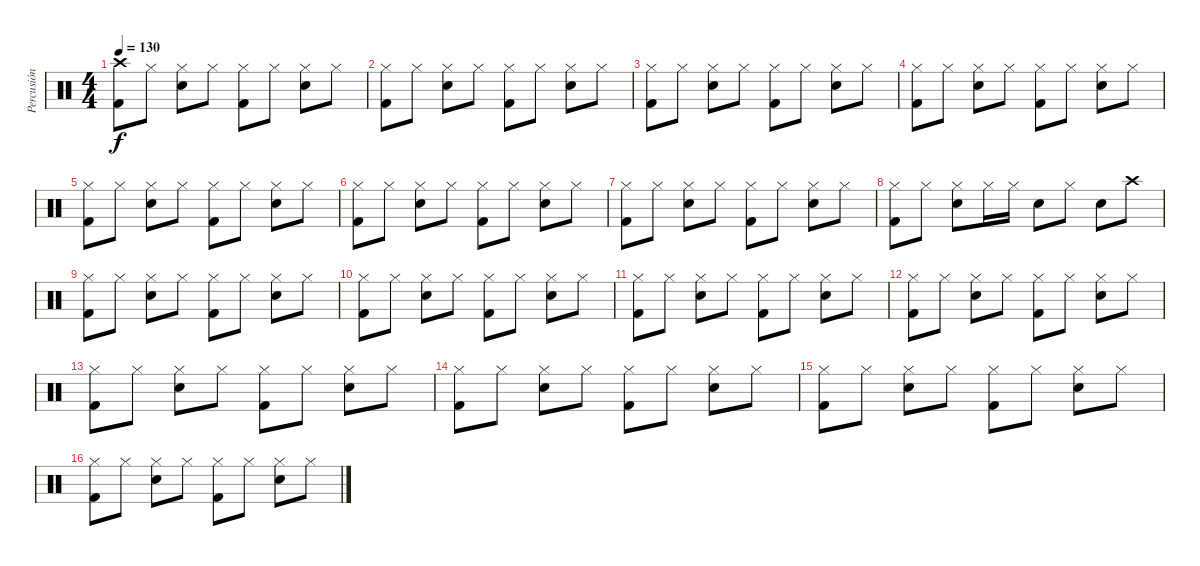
\track ("Percusión" "Percusión") {instrument percussion}
\staff {score}
\articulation defaults
\ts (4 4)
\tempo 130
\clef neutral
\ks c
("Crash high (hit)" "Kick (hit) 2").8{dy f} "Hi-Hat (closed)".8 ("Hi-Hat (closed)" "Snare (hit) 2").8 "Hi-Hat (closed)".8 ("Hi-Hat (closed)" "Kick (hit) 2").8 "Hi-Hat (closed)".8 ("Hi-Hat (closed)" "Snare (hit) 2").8 "Hi-Hat (closed)".8 |
("Hi-Hat (closed)" "Kick (hit) 2").8 "Hi-Hat (closed)".8 ("Hi-Hat (closed)" "Snare (hit) 2").8 "Hi-Hat (closed)".8 ("Hi-Hat (closed)" "Kick (hit) 2").8 "Hi-Hat (closed)".8 ("Hi-Hat (closed)" "Snare (hit) 2").8 "Hi-Hat (closed)".8 |
("Hi-Hat (closed)" "Kick (hit) 2").8 "Hi-Hat (closed)".8 ("Hi-Hat (closed)" "Snare (hit) 2").8 "Hi-Hat (closed)".8 ("Hi-Hat (closed)" "Kick (hit) 2").8 "Hi-Hat (closed)".8 ("Hi-Hat (closed)" "Snare (hit) 2").8 "Hi-Hat (closed)".8 |
("Hi-Hat (closed)" "Kick (hit) 2").8 "Hi-Hat (closed)".8 ("Hi-Hat (closed)" "Snare (hit) 2").8 "Hi-Hat (closed)".8 ("Hi-Hat (closed)" "Kick (hit) 2").8 "Hi-Hat (closed)".8 ("Hi-Hat (closed)" "Snare (hit) 2").8 "Hi-Hat (closed)".8 |
("Hi-Hat (closed)" "Kick (hit) 2").8 "Hi-Hat (closed)".8 ("Hi-Hat (closed)" "Snare (hit) 2").8 "Hi-Hat (closed)".8 ("Hi-Hat (closed)" "Kick (hit) 2").8 "Hi-Hat (closed)".8 ("Hi-Hat (closed)" "Snare (hit) 2").8 "Hi-Hat (closed)".8 |
("Hi-Hat (closed)" "Kick (hit) 2").8 "Hi-Hat (closed)".8 ("Hi-Hat (closed)" "Snare (hit) 2").8 "Hi-Hat (closed)".8 ("Hi-Hat (closed)" "Kick (hit) 2").8 "Hi-Hat (closed)".8 ("Hi-Hat (closed)" "Snare (hit) 2").8 "Hi-Hat (closed)".8 |
("Hi-Hat (closed)" "Kick (hit) 2").8 "Hi-Hat (closed)".8 ("Hi-Hat (closed)" "Snare (hit) 2").8 "Hi-Hat (closed)".8 ("Hi-Hat (closed)" "Kick (hit) 2").8 "Hi-Hat (closed)".8 ("Hi-Hat (closed)" "Snare (hit) 2").8 "Hi-Hat (closed)".8 |
("Hi-Hat (closed)" "Kick (hit) 2").8 "Hi-Hat (closed)".8 ("Hi-Hat (closed)" "Snare (hit) 2").8 "Hi-Hat (closed)".16 "Hi-Hat (closed)".16 "Snare (hit) 2".8 "Hi-Hat (closed)".8 "Snare (hit) 2".8 "Crash high (hit)".8 |
("Hi-Hat (closed)" "Kick (hit) 2").8 "Hi-Hat (closed)".8 ("Hi-Hat (closed)" "Snare (hit) 2").8 "Hi-Hat (closed)".8 ("Hi-Hat (closed)" "Kick (hit) 2").8 "Hi-Hat (closed)".8 ("Hi-Hat (closed)" "Snare (hit) 2").8 "Hi-Hat (closed)".8 |
("Hi-Hat (closed)" "Kick (hit) 2").8 "Hi-Hat (closed)".8 ("Hi-Hat (closed)" "Snare (hit) 2").8 "Hi-Hat (closed)".8 ("Hi-Hat (closed)" "Kick (hit) 2").8 "Hi-Hat (closed)".8 ("Hi-Hat (closed)" "Snare (hit) 2").8 "Hi-Hat (closed)".8 |
("Hi-Hat (closed)" "Kick (hit) 2").8 "Hi-Hat (closed)".8 ("Hi-Hat (closed)" "Snare (hit) 2").8 "Hi-Hat (closed)".8 ("Hi-Hat (closed)" "Kick (hit) 2").8 "Hi-Hat (closed)".8 ("Hi-Hat (closed)" "Snare (hit) 2").8 "Hi-Hat (closed)".8 |
("Hi-Hat (closed)" "Kick (hit) 2").8 "Hi-Hat (closed)".8 ("Hi-Hat (closed)" "Snare (hit) 2").8 "Hi-Hat (closed)".8 ("Hi-Hat (closed)" "Kick (hit) 2").8 "Hi-Hat (closed)".8 ("Hi-Hat (closed)" "Snare (hit) 2").8 "Hi-Hat (closed)".8 |
("Hi-Hat (closed)" "Kick (hit) 2").8 "Hi-Hat (closed)".8 ("Hi-Hat (closed)" "Snare (hit) 2").8 "Hi-Hat (closed)".8 ("Hi-Hat (closed)" "Kick (hit) 2").8 "Hi-Hat (closed)".8 ("Hi-Hat (closed)" "Snare (hit) 2").8 "Hi-Hat (closed)".8 |
("Hi-Hat (closed)" "Kick (hit) 2").8 "Hi-Hat (closed)".8 ("Hi-Hat (closed)" "Snare (hit) 2").8 "Hi-Hat (closed)".8 ("Hi-Hat (closed)" "Kick (hit) 2").8 "Hi-Hat (closed)".8 ("Hi-Hat (closed)" "Snare (hit) 2").8 "Hi-Hat (closed)".8 |
("Hi-Hat (closed)" "Kick (hit) 2").8 "Hi-Hat (closed)".8 ("Hi-Hat (closed)" "Snare (hit) 2").8 "Hi-Hat (closed)".8 ("Hi-Hat (closed)" "Kick (hit) 2").8 "Hi-Hat (closed)".8 ("Hi-Hat (closed)" "Snare (hit) 2").8 "Hi-Hat (closed)".8 |
("Hi-Hat (closed)" "Kick (hit) 2").8 "Hi-Hat (closed)".8 ("Hi-Hat (closed)" "Snare (hit) 2").8 "Hi-Hat (closed)".8 ("Hi-Hat (closed)" "Kick (hit) 2").8 "Hi-Hat (closed)".8 ("Hi-Hat (closed)" "Snare (hit) 2").8 "Hi-Hat (closed)".8
